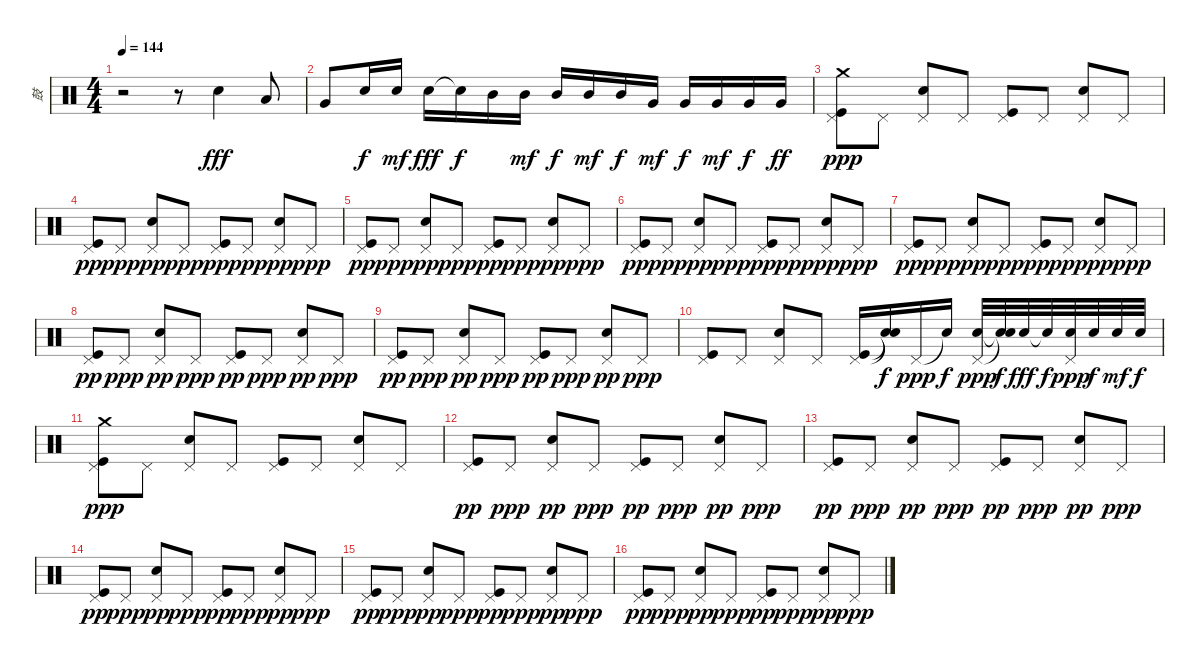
\track ("鼓" "鼓") {instrument percussion}
\staff {score}
\articulation defaults
\ts (4 4)
\tempo 144
\clef neutral
\ks c
r.2{dy mp} r.8 "Snare (hit) 2".4{dy fff} "Low Tom (hit)".8 |
"Very Low Tom (hit)".8 "Snare (hit) 2".16{dy f} "Snare (hit) 2".16{dy mf} "Snare (hit) 2".16{dy fff} "Snare (hit)"{t}.16{dy f} "Mid Tom (hit)".16 "Mid Tom (hit)".16{dy mf} "Mid Tom (hit)".16{dy f} "Mid Tom (hit)".16{dy mf} "Mid Tom (hit)".16{dy f} "Very Low Tom (hit)".16{dy mf} "Very Low Tom (hit)".16{dy f} "Very Low Tom (hit)".16{dy mf} "Very Low Tom (hit)".16{dy f} "Very Low Tom (hit)".16{dy ff} |
("Crash medium (hit)" "Kick (hit)" "Pedal Hi-Hat (hit)").8{dy ppp} "Pedal Hi-Hat (hit)".8 ("Snare (hit) 2" "Pedal Hi-Hat (hit)").8 "Pedal Hi-Hat (hit)".8 ("Kick (hit)" "Pedal Hi-Hat (hit)").8 "Pedal Hi-Hat (hit)".8 ("Snare (hit) 2" "Pedal Hi-Hat (hit)").8 "Pedal Hi-Hat (hit)".8 |
("Kick (hit)" "Pedal Hi-Hat (hit)").8{dy pp} "Pedal Hi-Hat (hit)".8{dy ppp} ("Snare (hit) 2" "Pedal Hi-Hat (hit)").8{dy pp} "Pedal Hi-Hat (hit)".8{dy ppp} ("Kick (hit)" "Pedal Hi-Hat (hit)").8{dy pp} "Pedal Hi-Hat (hit)".8{dy ppp} ("Snare (hit) 2" "Pedal Hi-Hat (hit)").8{dy pp} "Pedal Hi-Hat (hit)".8{dy ppp} |
("Kick (hit)" "Pedal Hi-Hat (hit)").8{dy pp} "Pedal Hi-Hat (hit)".8{dy ppp} ("Snare (hit) 2" "Pedal Hi-Hat (hit)").8{dy pp} "Pedal Hi-Hat (hit)".8{dy ppp} ("Kick (hit)" "Pedal Hi-Hat (hit)").8{dy pp} "Pedal Hi-Hat (hit)".8{dy ppp} ("Snare (hit) 2" "Pedal Hi-Hat (hit)").8{dy pp} "Pedal Hi-Hat (hit)".8{dy ppp} |
("Kick (hit)" "Pedal Hi-Hat (hit)").8{dy pp} "Pedal Hi-Hat (hit)".8{dy ppp} ("Snare (hit) 2" "Pedal Hi-Hat (hit)").8{dy pp} "Pedal Hi-Hat (hit)".8{dy ppp} ("Kick (hit)" "Pedal Hi-Hat (hit)").8{dy pp} "Pedal Hi-Hat (hit)".8{dy ppp} ("Snare (hit) 2" "Pedal Hi-Hat (hit)").8{dy pp} "Pedal Hi-Hat (hit)".8{dy ppp} |
("Kick (hit)" "Pedal Hi-Hat (hit)").8{dy pp} "Pedal Hi-Hat (hit)".8{dy ppp} ("Snare (hit) 2" "Pedal Hi-Hat (hit)").8{dy pp} "Pedal Hi-Hat (hit)".8{dy ppp} ("Kick (hit)" "Pedal Hi-Hat (hit)").8{dy pp} "Pedal Hi-Hat (hit)".8{dy ppp} ("Snare (hit) 2" "Pedal Hi-Hat (hit)").8{dy pp} "Pedal Hi-Hat (hit)".8{dy ppp} |
("Kick (hit)" "Pedal Hi-Hat (hit)").8{dy pp} "Pedal Hi-Hat (hit)".8{dy ppp} ("Snare (hit) 2" "Pedal Hi-Hat (hit)").8{dy pp} "Pedal Hi-Hat (hit)".8{dy ppp} ("Kick (hit)" "Pedal Hi-Hat (hit)").8{dy pp} "Pedal Hi-Hat (hit)".8{dy ppp} ("Snare (hit) 2" "Pedal Hi-Hat (hit)").8{dy pp} "Pedal Hi-Hat (hit)".8{dy ppp} |
("Kick (hit)" "Pedal Hi-Hat (hit)").8{dy pp} "Pedal Hi-Hat (hit)".8{dy ppp} ("Snare (hit) 2" "Pedal Hi-Hat (hit)").8{dy pp} "Pedal Hi-Hat (hit)".8{dy ppp} ("Kick (hit)" "Pedal Hi-Hat (hit)").8{dy pp} "Pedal Hi-Hat (hit)".8{dy ppp} ("Snare (hit) 2" "Pedal Hi-Hat (hit)").8{dy pp} "Pedal Hi-Hat (hit)".8{dy ppp} |
("Kick (hit)" "Pedal Hi-Hat (hit)").8 "Pedal Hi-Hat (hit)".8 ("Snare (hit) 2" "Pedal Hi-Hat (hit)").8 "Pedal Hi-Hat (hit)".8 ("Kick (hit)" "Pedal Hi-Hat (hit)").16 ("Snare (hit)"{t} "Snare (hit)"{t}).16{dy f} "Pedal Hi-Hat (hit)".16{dy ppp} "Snare (hit)"{t}.16{dy f} ("Snare (hit) 2" "Pedal Hi-Hat (hit)").32{dy ppp} ("Snare (hit)"{t} "Snare (hit)"{t}).32{dy f} "Snare (hit) 2".32{dy fff} "Snare (hit)"{t}.32{dy f} ("Snare (hit) 2" "Pedal Hi-Hat (hit)").32{dy ppp} "Snare (hit) 2".32{dy f} "Snare (hit) 2".32{dy mf} "Snare (hit) 2".32{dy f} |
("Crash medium (hit)" "Kick (hit)" "Pedal Hi-Hat (hit)").8{dy ppp} "Pedal Hi-Hat (hit)".8 ("Snare (hit) 2" "Pedal Hi-Hat (hit)").8 "Pedal Hi-Hat (hit)".8 ("Kick (hit)" "Pedal Hi-Hat (hit)").8 "Pedal Hi-Hat (hit)".8 ("Snare (hit) 2" "Pedal Hi-Hat (hit)").8 "Pedal Hi-Hat (hit)".8 |
("Kick (hit)" "Pedal Hi-Hat (hit)").8{dy pp} "Pedal Hi-Hat (hit)".8{dy ppp} ("Snare (hit) 2" "Pedal Hi-Hat (hit)").8{dy pp} "Pedal Hi-Hat (hit)".8{dy ppp} ("Kick (hit)" "Pedal Hi-Hat (hit)").8{dy pp} "Pedal Hi-Hat (hit)".8{dy ppp} ("Snare (hit) 2" "Pedal Hi-Hat (hit)").8{dy pp} "Pedal Hi-Hat (hit)".8{dy ppp} |
("Kick (hit)" "Pedal Hi-Hat (hit)").8{dy pp} "Pedal Hi-Hat (hit)".8{dy ppp} ("Snare (hit) 2" "Pedal Hi-Hat (hit)").8{dy pp} "Pedal Hi-Hat (hit)".8{dy ppp} ("Kick (hit)" "Pedal Hi-Hat (hit)").8{dy pp} "Pedal Hi-Hat (hit)".8{dy ppp} ("Snare (hit) 2" "Pedal Hi-Hat (hit)").8{dy pp} "Pedal Hi-Hat (hit)".8{dy ppp} |
("Kick (hit)" "Pedal Hi-Hat (hit)").8{dy pp} "Pedal Hi-Hat (hit)".8{dy ppp} ("Snare (hit) 2" "Pedal Hi-Hat (hit)").8{dy pp} "Pedal Hi-Hat (hit)".8{dy ppp} ("Kick (hit)" "Pedal Hi-Hat (hit)").8{dy pp} "Pedal Hi-Hat (hit)".8{dy ppp} ("Snare (hit) 2" "Pedal Hi-Hat (hit)").8{dy pp} "Pedal Hi-Hat (hit)".8{dy ppp} |
("Kick (hit)" "Pedal Hi-Hat (hit)").8{dy pp} "Pedal Hi-Hat (hit)".8{dy ppp} ("Snare (hit) 2" "Pedal Hi-Hat (hit)").8{dy pp} "Pedal Hi-Hat (hit)".8{dy ppp} ("Kick (hit)" "Pedal Hi-Hat (hit)").8{dy pp} "Pedal Hi-Hat (hit)".8{dy ppp} ("Snare (hit) 2" "Pedal Hi-Hat (hit)").8{dy pp} "Pedal Hi-Hat (hit)".8{dy ppp} |
("Kick (hit)" "Pedal Hi-Hat (hit)").8{dy pp} "Pedal Hi-Hat (hit)".8{dy ppp} ("Snare (hit) 2" "Pedal Hi-Hat (hit)").8{dy pp} "Pedal Hi-Hat (hit)".8{dy ppp} ("Kick (hit)" "Pedal Hi-Hat (hit)").8{dy pp} "Pedal Hi-Hat (hit)".8{dy ppp} ("Snare (hit) 2" "Pedal Hi-Hat (hit)").8{dy pp} "Pedal Hi-Hat (hit)".8{dy ppp}
